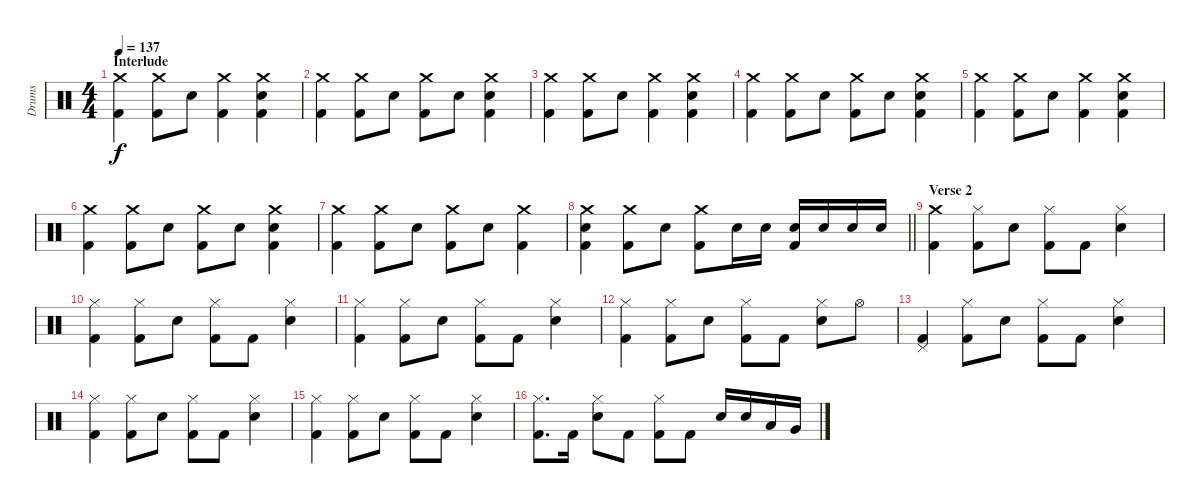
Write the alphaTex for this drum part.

\track ("Drums" "Drums") {instrument percussion}
\staff {score}
\articulation defaults
\ts (4 4)
\section ("" "Interlude")
\tempo 137
\clef neutral
\ks c
("Crash medium (hit)" "Kick (hit) 2").4{dy f} ("Crash medium (hit)" "Kick (hit) 2").8 "Electric Snare (hit)".8 ("Crash medium (hit)" "Kick (hit) 2").4 ("Crash medium (hit)" "Electric Snare (hit)" "Kick (hit) 2").4 |
("Crash medium (hit)" "Kick (hit) 2").4 ("Crash medium (hit)" "Kick (hit) 2").8 "Electric Snare (hit)".8 ("Crash medium (hit)" "Kick (hit) 2").8 "Electric Snare (hit)".8 ("Crash medium (hit)" "Electric Snare (hit)" "Kick (hit) 2").4 |
("Crash medium (hit)" "Kick (hit) 2").4 ("Crash medium (hit)" "Kick (hit) 2").8 "Electric Snare (hit)".8 ("Crash medium (hit)" "Kick (hit) 2").4 ("Crash medium (hit)" "Electric Snare (hit)" "Kick (hit) 2").4 |
("Crash medium (hit)" "Kick (hit) 2").4 ("Crash medium (hit)" "Kick (hit) 2").8 "Electric Snare (hit)".8 ("Crash medium (hit)" "Kick (hit) 2").8 "Electric Snare (hit)".8 ("Crash medium (hit)" "Electric Snare (hit)" "Kick (hit) 2").4 |
("Crash medium (hit)" "Kick (hit) 2").4 ("Crash medium (hit)" "Kick (hit) 2").8 "Electric Snare (hit)".8 ("Crash medium (hit)" "Kick (hit) 2").4 ("Crash medium (hit)" "Electric Snare (hit)" "Kick (hit) 2").4 |
("Crash medium (hit)" "Kick (hit) 2").4 ("Crash medium (hit)" "Kick (hit) 2").8 "Electric Snare (hit)".8 ("Crash medium (hit)" "Kick (hit) 2").8 "Electric Snare (hit)".8 ("Crash medium (hit)" "Electric Snare (hit)" "Kick (hit) 2").4 |
("Crash medium (hit)" "Kick (hit) 2").4 ("Crash medium (hit)" "Kick (hit) 2").8 "Electric Snare (hit)".8 ("Crash medium (hit)" "Kick (hit) 2").8 "Electric Snare (hit)".8 ("Crash medium (hit)" "Kick (hit) 2").4 |
\barLineRight lightlight
("Crash medium (hit)" "Electric Snare (hit)" "Kick (hit) 2").4 ("Crash medium (hit)" "Kick (hit) 2").8 "Electric Snare (hit)".8 ("Crash medium (hit)" "Kick (hit) 2").8 "Electric Snare (hit)".16 "Electric Snare (hit)".16 ("Electric Snare (hit)" "Kick (hit) 2").16 "Electric Snare (hit)".16 "Electric Snare (hit)".16 "Electric Snare (hit)".16 |
\section ("" "Verse 2")
("Crash medium (hit)" "Kick (hit) 2").4 ("Hi-Hat (closed)" "Kick (hit) 2").8 "Electric Snare (hit)".8 ("Hi-Hat (closed)" "Kick (hit) 2").8 "Kick (hit) 2".8 ("Hi-Hat (closed)" "Electric Snare (hit)").4 |
("Hi-Hat (closed)" "Kick (hit) 2").4 ("Hi-Hat (closed)" "Kick (hit) 2").8 "Electric Snare (hit)".8 ("Hi-Hat (closed)" "Kick (hit) 2").8 "Kick (hit) 2".8 ("Hi-Hat (closed)" "Electric Snare (hit)").4 |
("Hi-Hat (closed)" "Kick (hit) 2").4 ("Hi-Hat (closed)" "Kick (hit) 2").8 "Electric Snare (hit)".8 ("Hi-Hat (closed)" "Kick (hit) 2").8 "Kick (hit) 2".8 ("Hi-Hat (closed)" "Electric Snare (hit)").4 |
("Hi-Hat (closed)" "Kick (hit) 2").4 ("Hi-Hat (closed)" "Kick (hit) 2").8 "Electric Snare (hit)".8 ("Hi-Hat (closed)" "Kick (hit) 2").8 "Kick (hit) 2".8 ("Hi-Hat (closed)" "Electric Snare (hit)").8 "Hi-Hat (open)".8 |
("Pedal Hi-Hat (hit)" "Kick (hit) 2").4 ("Hi-Hat (closed)" "Kick (hit) 2").8 "Electric Snare (hit)".8 ("Hi-Hat (closed)" "Kick (hit) 2").8 "Kick (hit) 2".8 ("Hi-Hat (closed)" "Electric Snare (hit)").4 |
("Hi-Hat (closed)" "Kick (hit) 2").4 ("Hi-Hat (closed)" "Kick (hit) 2").8 "Electric Snare (hit)".8 ("Hi-Hat (closed)" "Kick (hit) 2").8 "Kick (hit) 2".8 ("Hi-Hat (closed)" "Electric Snare (hit)").4 |
("Hi-Hat (closed)" "Kick (hit) 2").4 ("Hi-Hat (closed)" "Kick (hit) 2").8 "Electric Snare (hit)".8 ("Hi-Hat (closed)" "Kick (hit) 2").8 "Kick (hit) 2".8 ("Hi-Hat (closed)" "Electric Snare (hit)").4 |
("Hi-Hat (closed)" "Kick (hit) 2").8{d} "Kick (hit) 2".16 ("Hi-Hat (closed)" "Electric Snare (hit)").8 "Kick (hit) 2".8 ("Hi-Hat (closed)" "Kick (hit) 2").8 "Kick (hit) 2".8 "Electric Snare (hit)".16 "Electric Snare (hit)".16 "Low Tom (hit)".16 "Very Low Tom (hit)".16
